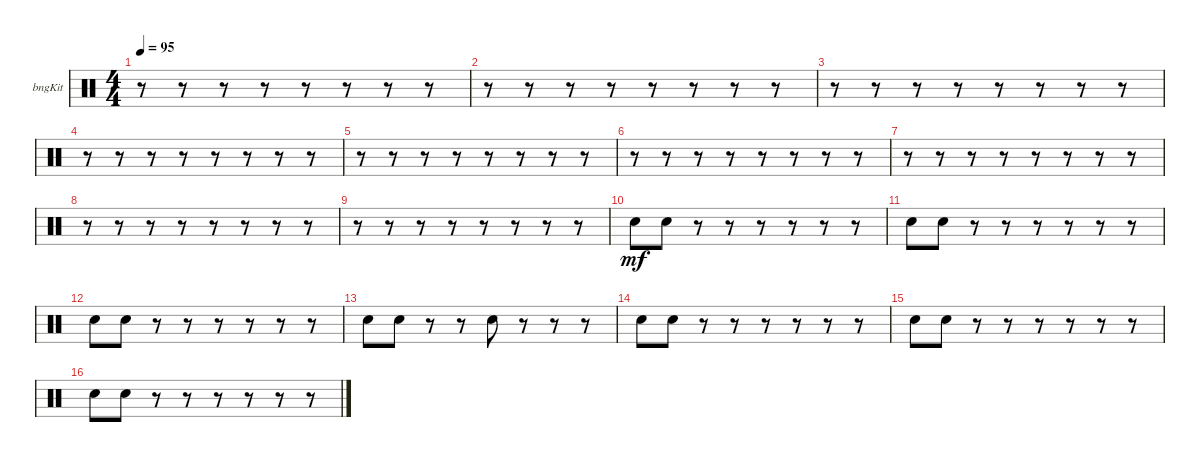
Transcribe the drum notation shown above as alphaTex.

\bracketExtendMode groupsimilarinstruments
\firstSystemTrackNameOrientation horizontal
\otherSystemsTrackNameOrientation horizontal
\track ("Bongos" "bngKit") {instrument percussion}
\staff {score}
\articulation defaults
\ts (4 4)
\tempo 95
\clef neutral
\ks c
r.8{dy mf} r.8 r.8 r.8 r.8 r.8 r.8 r.8 |
r.8 r.8 r.8 r.8 r.8 r.8 r.8 r.8 |
r.8 r.8 r.8 r.8 r.8 r.8 r.8 r.8 |
r.8 r.8 r.8 r.8 r.8 r.8 r.8 r.8 |
r.8 r.8 r.8 r.8 r.8 r.8 r.8 r.8 |
r.8 r.8 r.8 r.8 r.8 r.8 r.8 r.8 |
r.8 r.8 r.8 r.8 r.8 r.8 r.8 r.8 |
r.8 r.8 r.8 r.8 r.8 r.8 r.8 r.8 |
r.8 r.8 r.8 r.8 r.8 r.8 r.8 r.8 |
"Snare (hit) 2".8 "Snare (hit) 2".8 r.8 r.8 r.8 r.8 r.8 r.8 |
"Snare (hit) 2".8 "Snare (hit) 2".8 r.8 r.8 r.8 r.8 r.8 r.8 |
"Snare (hit) 2".8 "Snare (hit) 2".8 r.8 r.8 r.8 r.8 r.8 r.8 |
"Snare (hit) 2".8 "Snare (hit) 2".8 r.8 r.8 "Snare (hit) 2".8 r.8 r.8 r.8 |
"Snare (hit) 2".8 "Snare (hit) 2".8 r.8 r.8 r.8 r.8 r.8 r.8 |
"Snare (hit) 2".8 "Snare (hit) 2".8 r.8 r.8 r.8 r.8 r.8 r.8 |
"Snare (hit) 2".8 "Snare (hit) 2".8 r.8 r.8 r.8 r.8 r.8 r.8
